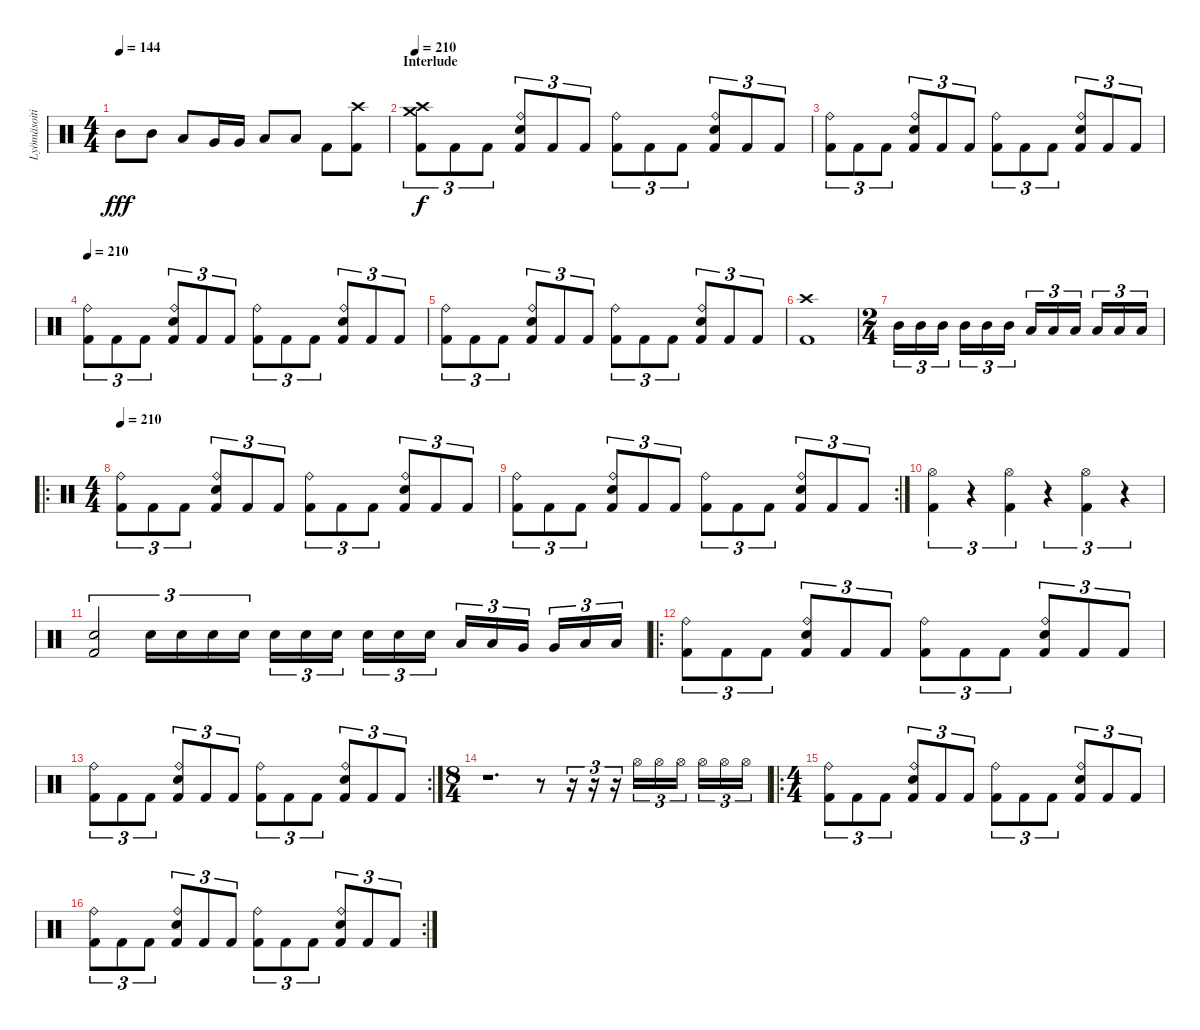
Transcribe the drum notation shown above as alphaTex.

\track ("Lyömäsoitin" "Lyömäsoiti") {instrument percussion}
\staff {score}
\articulation defaults
\ts (4 4)
\tempo 144
\clef neutral
\ks c "Mid Tom (hit)".8{dy fff} "Mid Tom (hit)".8 "Low Tom (hit)".8 "Very Low Tom (hit)".16 "Very Low Tom (hit)".16 "Low Tom (hit)".8 "Low Tom (hit)".8 "Kick (hit) 2".8
("Kick (hit) 2" "Crash high (hit)").8 |
\section ("" "Interlude")
\tempo 210
("Crash medium (hit)" "Crash high (hit)" "Kick (hit) 2").8{tu (3 2) dy f} "Kick (hit) 2".8{tu (3 2)} "Kick (hit) 2".8{tu (3 2)} ("Ride (bell)" "Snare (hit) 2" "Kick (hit) 2").8{tu (3 2)} "Kick (hit) 2".8{tu (3 2)} "Kick (hit) 2".8{tu (3 2)} ("Ride (bell)" "Kick (hit) 2").8{tu (3 2)} "Kick (hit) 2".8{tu (3 2)} "Kick (hit) 2".8{tu (3 2)} ("Ride (bell)" "Snare (hit) 2" "Kick (hit) 2").8{tu (3 2)} "Kick (hit) 2".8{tu (3 2)} "Kick (hit) 2".8{tu (3 2)} |
("Ride (bell)" "Kick (hit) 2").8{tu (3 2)} "Kick (hit) 2".8{tu (3 2)} "Kick (hit) 2".8{tu (3 2)} ("Ride (bell)" "Snare (hit) 2" "Kick (hit) 2").8{tu (3 2)} "Kick (hit) 2".8{tu (3 2)} "Kick (hit) 2".8{tu (3 2)} ("Ride (bell)" "Kick (hit) 2").8{tu (3 2)} "Kick (hit) 2".8{tu (3 2)} "Kick (hit) 2".8{tu (3 2)} ("Ride (bell)" "Snare (hit) 2" "Kick (hit) 2").8{tu (3 2)} "Kick (hit) 2".8{tu (3 2)} "Kick (hit) 2".8{tu (3 2)} |
\tempo 210
("Ride (bell)" "Kick (hit) 2").8{tu (3 2)} "Kick (hit) 2".8{tu (3 2)} "Kick (hit) 2".8{tu (3 2)} ("Ride (bell)" "Snare (hit) 2" "Kick (hit) 2").8{tu (3 2)} "Kick (hit) 2".8{tu (3 2)} "Kick (hit) 2".8{tu (3 2)} ("Ride (bell)" "Kick (hit) 2").8{tu (3 2)} "Kick (hit) 2".8{tu (3 2)} "Kick (hit) 2".8{tu (3 2)} ("Ride (bell)" "Snare (hit) 2" "Kick (hit) 2").8{tu (3 2)} "Kick (hit) 2".8{tu (3 2)} "Kick (hit) 2".8{tu (3 2)} |
("Ride (bell)" "Kick (hit) 2").8{tu (3 2)} "Kick (hit) 2".8{tu (3 2)} "Kick (hit) 2".8{tu (3 2)} ("Ride (bell)" "Snare (hit) 2" "Kick (hit) 2").8{tu (3 2)} "Kick (hit) 2".8{tu (3 2)} "Kick (hit) 2".8{tu (3 2)} ("Ride (bell)" "Kick (hit) 2").8{tu (3 2)} "Kick (hit) 2".8{tu (3 2)} "Kick (hit) 2".8{tu (3 2)} ("Ride (bell)" "Snare (hit) 2" "Kick (hit) 2").8{tu (3 2)} "Kick (hit) 2".8{tu (3 2)} "Kick (hit) 2".8{tu (3 2)} |
("Crash high (hit)" "Kick (hit) 2").1 |
\ts (2 4)
"Mid Tom (hit)".16{tu (3 2)} "Mid Tom (hit)".16{tu (3 2)} "Mid Tom (hit)".16{tu (3 2)} "Mid Tom (hit)".16{tu (3 2)} "Mid Tom (hit)".16{tu (3 2)} "Mid Tom (hit)".16{tu (3 2)} "Low Tom (hit)".16{tu (3 2)} "Low Tom (hit)".16{tu (3 2)} "Low Tom (hit)".16{tu (3 2)} "Low Tom (hit)".16{tu (3 2)} "Low Tom (hit)".16{tu (3 2)} "Low Tom (hit)".16{tu (3 2)} |
\ro
\ts (4 4)
\tempo 210
("Ride (bell)" "Kick (hit) 2").8{tu (3 2)} "Kick (hit) 2".8{tu (3 2)} "Kick (hit) 2".8{tu (3 2)} ("Ride (bell)" "Snare (hit) 2" "Kick (hit) 2").8{tu (3 2)} "Kick (hit) 2".8{tu (3 2)} "Kick (hit) 2".8{tu (3 2)} ("Ride (bell)" "Kick (hit) 2").8{tu (3 2)} "Kick (hit) 2".8{tu (3 2)} "Kick (hit) 2".8{tu (3 2)} ("Ride (bell)" "Snare (hit) 2" "Kick (hit) 2").8{tu (3 2)} "Kick (hit) 2".8{tu (3 2)} "Kick (hit) 2".8{tu (3 2)} |
\rc 2
("Ride (bell)" "Kick (hit) 2").8{tu (3 2)} "Kick (hit) 2".8{tu (3 2)} "Kick (hit) 2".8{tu (3 2)} ("Ride (bell)" "Snare (hit) 2" "Kick (hit) 2").8{tu (3 2)} "Kick (hit) 2".8{tu (3 2)} "Kick (hit) 2".8{tu (3 2)} ("Ride (bell)" "Kick (hit) 2").8{tu (3 2)} "Kick (hit) 2".8{tu (3 2)} "Kick (hit) 2".8{tu (3 2)} ("Ride (bell)" "Snare (hit) 2" "Kick (hit) 2").8{tu (3 2)} "Kick (hit) 2".8{tu (3 2)} "Kick (hit) 2".8{tu (3 2)} |
("Kick (hit) 2" "Hi-Hat (open)").4{tu (3 2)} r.4{tu (3 2)} ("Kick (hit) 2" "Hi-Hat (open)").4{tu (3 2)} r.4{tu (3 2)} ("Kick (hit) 2" "Hi-Hat (open)").4{tu (3 2)} r.4{tu (3 2)} |
("Kick (hit) 2" "Snare (hit) 2").2{tu (3 2)} "Snare (hit) 2".16{tu (3 2)} "Snare (hit) 2".16{tu (3 2)} "Snare (hit) 2".16{tu (3 2)} "Snare (hit) 2".16{tu (3 2)} "Snare (hit) 2".16{tu (3 2)} "Snare (hit) 2".16{tu (3 2)} "Snare (hit) 2".16{tu (3 2)} "Snare (hit) 2".16{tu (3 2)} "Snare (hit) 2".16{tu (3 2)} "Snare (hit) 2".16{tu (3 2)} "Low Tom (hit)".16{tu (3 2)} "Low Tom (hit)".16{tu (3 2)} "Very Low Tom (hit)".16{tu (3 2)} "Very Low Tom (hit)".16{tu (3 2)} "Low Floor Tom (hit)".16{tu (3 2)} "Low Floor Tom (hit)".16{tu (3 2)} |
\ro
("Ride (bell)" "Kick (hit) 2").8{tu (3 2)} "Kick (hit) 2".8{tu (3 2)} "Kick (hit) 2".8{tu (3 2)} ("Ride (bell)" "Snare (hit) 2" "Kick (hit) 2").8{tu (3 2)} "Kick (hit) 2".8{tu (3 2)} "Kick (hit) 2".8{tu (3 2)} ("Ride (bell)" "Kick (hit) 2").8{tu (3 2)} "Kick (hit) 2".8{tu (3 2)} "Kick (hit) 2".8{tu (3 2)} ("Ride (bell)" "Snare (hit) 2" "Kick (hit) 2").8{tu (3 2)} "Kick (hit) 2".8{tu (3 2)} "Kick (hit) 2".8{tu (3 2)} |
\rc 2
("Ride (bell)" "Kick (hit) 2").8{tu (3 2)} "Kick (hit) 2".8{tu (3 2)} "Kick (hit) 2".8{tu (3 2)} ("Ride (bell)" "Snare (hit) 2" "Kick (hit) 2").8{tu (3 2)} "Kick (hit) 2".8{tu (3 2)} "Kick (hit) 2".8{tu (3 2)} ("Ride (bell)" "Kick (hit) 2").8{tu (3 2)} "Kick (hit) 2".8{tu (3 2)} "Kick (hit) 2".8{tu (3 2)} ("Ride (bell)" "Snare (hit) 2" "Kick (hit) 2").8{tu (3 2)} "Kick (hit) 2".8{tu (3 2)} "Kick (hit) 2".8{tu (3 2)} |
\ts (8 4)
r.1{d} r.8 r.16{tu (3 2)} r.16{tu (3 2)} r.16{tu (3 2)} "Hi-Hat (open)".16{tu (3 2)} "Hi-Hat (open)".16{tu (3 2)} "Hi-Hat (open)".16{tu (3 2)} "Hi-Hat (open)".16{tu (3 2)} "Hi-Hat (open)".16{tu (3 2)} "Hi-Hat (open)".16{tu (3 2)} |
\ro
\ts (4 4)
("Ride (bell)" "Kick (hit) 2").8{tu (3 2)} "Kick (hit) 2".8{tu (3 2)} "Kick (hit) 2".8{tu (3 2)} ("Ride (bell)" "Snare (hit) 2" "Kick (hit) 2").8{tu (3 2)} "Kick (hit) 2".8{tu (3 2)} "Kick (hit) 2".8{tu (3 2)} ("Ride (bell)" "Kick (hit) 2").8{tu (3 2)} "Kick (hit) 2".8{tu (3 2)} "Kick (hit) 2".8{tu (3 2)} ("Ride (bell)" "Snare (hit) 2" "Kick (hit) 2").8{tu (3 2)} "Kick (hit) 2".8{tu (3 2)} "Kick (hit) 2".8{tu (3 2)} |
\rc 2
("Ride (bell)" "Kick (hit) 2").8{tu (3 2)} "Kick (hit) 2".8{tu (3 2)} "Kick (hit) 2".8{tu (3 2)} ("Ride (bell)" "Snare (hit) 2" "Kick (hit) 2").8{tu (3 2)} "Kick (hit) 2".8{tu (3 2)} "Kick (hit) 2".8{tu (3 2)} ("Ride (bell)" "Kick (hit) 2").8{tu (3 2)} "Kick (hit) 2".8{tu (3 2)} "Kick (hit) 2".8{tu (3 2)} ("Ride (bell)" "Snare (hit) 2" "Kick (hit) 2").8{tu (3 2)} "Kick (hit) 2".8{tu (3 2)} "Kick (hit) 2".8{tu (3 2)}
